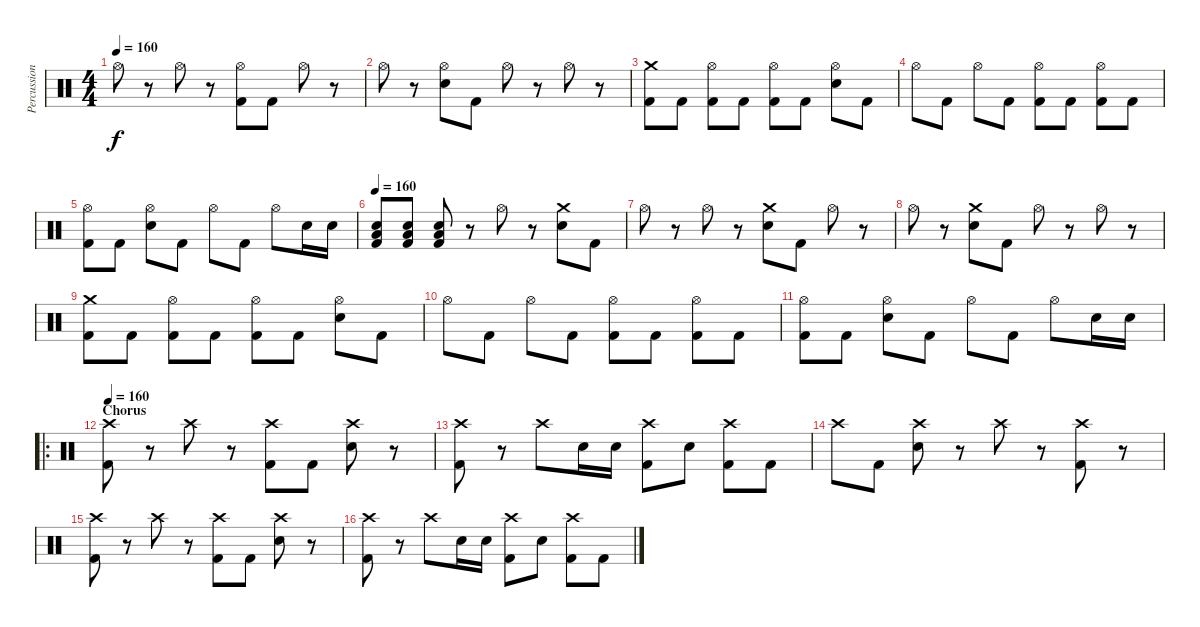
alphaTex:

\track ("Percussion" "Percussion") {instrument percussion}
\staff {score}
\articulation defaults
\ts (4 4)
\tempo 160
\clef neutral
\ks c "Hi-Hat (open)".8{dy f}
r.8 "Hi-Hat (open)".8 r.8 ("Hi-Hat (open)" "Kick (hit) 2").8 "Kick (hit) 2".8 "Hi-Hat (open)".8 r.8 |
"Hi-Hat (open)".8 r.8 ("Hi-Hat (open)" "Electric Snare (hit)").8 "Kick (hit) 2".8 "Hi-Hat (open)".8 r.8 "Hi-Hat (open)".8 r.8 |
("Crash medium (hit)" "Kick (hit) 2").8 "Kick (hit) 2".8 ("Hi-Hat (open)" "Kick (hit) 2").8 "Kick (hit) 2".8 ("Hi-Hat (open)" "Kick (hit) 2").8 "Kick (hit) 2".8 ("Hi-Hat (open)" "Electric Snare (hit)").8 "Kick (hit) 2".8 |
"Hi-Hat (open)".8 "Kick (hit) 2".8 "Hi-Hat (open)".8 "Kick (hit) 2".8 ("Hi-Hat (open)" "Kick (hit) 2").8 "Kick (hit) 2".8 ("Hi-Hat (open)" "Kick (hit) 2").8 "Kick (hit) 2".8 |
("Hi-Hat (open)" "Kick (hit) 2").8 "Kick (hit) 2".8 ("Hi-Hat (open)" "Electric Snare (hit)").8 "Kick (hit) 2".8 "Hi-Hat (open)".8 "Kick (hit) 2".8 "Hi-Hat (open)".8 "Electric Snare (hit)".16 "Electric Snare (hit)".16 |
\tempo 160
("Low Floor Tom (hit)" "Electric Snare (hit)" "Kick (hit) 2").8 ("Low Floor Tom (hit)" "Electric Snare (hit)" "Kick (hit) 2").8 ("Low Floor Tom (hit)" "Electric Snare (hit)" "Kick (hit) 2").8 r.8 "Hi-Hat (open)".8 r.8 ("Crash medium (hit)" "Electric Snare (hit)").8 "Kick (hit) 2".8 |
"Hi-Hat (open)".8 r.8 "Hi-Hat (open)".8 r.8 ("Crash medium (hit)" "Electric Snare (hit)").8 "Kick (hit) 2".8 "Hi-Hat (open)".8 r.8 |
"Hi-Hat (open)".8 r.8 ("Crash medium (hit)" "Electric Snare (hit)").8 "Kick (hit) 2".8 "Hi-Hat (open)".8 r.8 "Hi-Hat (open)".8 r.8 |
("Crash medium (hit)" "Kick (hit) 2").8 "Kick (hit) 2".8 ("Hi-Hat (open)" "Kick (hit) 2").8 "Kick (hit) 2".8 ("Hi-Hat (open)" "Kick (hit) 2").8 "Kick (hit) 2".8 ("Hi-Hat (open)" "Electric Snare (hit)").8 "Kick (hit) 2".8 |
"Hi-Hat (open)".8 "Kick (hit) 2".8 "Hi-Hat (open)".8 "Kick (hit) 2".8 ("Hi-Hat (open)" "Kick (hit) 2").8 "Kick (hit) 2".8 ("Hi-Hat (open)" "Kick (hit) 2").8 "Kick (hit) 2".8 |
("Hi-Hat (open)" "Kick (hit) 2").8 "Kick (hit) 2".8 ("Hi-Hat (open)" "Electric Snare (hit)").8 "Kick (hit) 2".8 "Hi-Hat (open)".8 "Kick (hit) 2".8 "Hi-Hat (open)".8 "Electric Snare (hit)".16 "Electric Snare (hit)".16 |
\ro
\section ("" "Chorus")
\tempo 160
("Crash high (hit)" "Kick (hit) 2").8 r.8 "Crash high (hit)".8 r.8 ("Crash high (hit)" "Kick (hit) 2").8 "Kick (hit) 2".8 ("Crash high (hit)" "Electric Snare (hit)").8 r.8 |
("Crash high (hit)" "Kick (hit) 2").8 r.8 "Crash high (hit)".8 "Electric Snare (hit)".16 "Electric Snare (hit)".16 ("Crash high (hit)" "Kick (hit) 2").8 "Electric Snare (hit)".8 ("Crash high (hit)" "Kick (hit) 2").8 "Kick (hit) 2".8 |
"Crash high (hit)".8 "Kick (hit) 2".8 ("Crash high (hit)" "Electric Snare (hit)").8 r.8 "Crash high (hit)".8 r.8 ("Crash high (hit)" "Kick (hit) 2").8 r.8 |
("Crash high (hit)" "Kick (hit) 2").8 r.8 "Crash high (hit)".8 r.8 ("Crash high (hit)" "Kick (hit) 2").8 "Kick (hit) 2".8 ("Crash high (hit)" "Electric Snare (hit)").8 r.8 |
("Crash high (hit)" "Kick (hit) 2").8 r.8 "Crash high (hit)".8 "Electric Snare (hit)".16 "Electric Snare (hit)".16 ("Crash high (hit)" "Kick (hit) 2").8 "Electric Snare (hit)".8 ("Crash high (hit)" "Kick (hit) 2").8 "Kick (hit) 2".8
